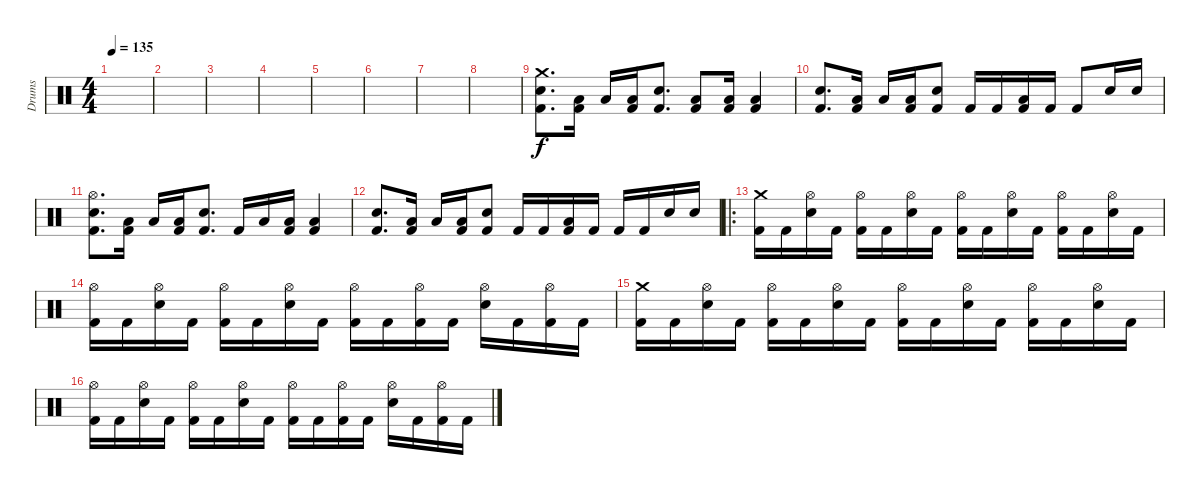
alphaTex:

\track ("Drums" "Drums") {instrument percussion}
\staff {score}
\articulation defaults
\ts (4 4)
\tempo 135
\clef neutral
\ks c
|
|
|
|
|
|
|
|
("Crash medium (hit)" "Electric Snare (hit)" "Kick (hit) 2").8{d} ("Low Floor Tom (hit)" "Kick (hit) 2").16 "Low Floor Tom (hit)".16 ("Low Floor Tom (hit)" "Kick (hit) 2").16 ("Electric Snare (hit)" "Kick (hit) 2").8{d} ("Low Floor Tom (hit)" "Kick (hit) 2").8 ("Low Floor Tom (hit)" "Kick (hit) 2").16 ("Low Floor Tom (hit)" "Kick (hit) 2").4 |
("Electric Snare (hit)" "Kick (hit) 2").8{d} ("Low Floor Tom (hit)" "Kick (hit) 2").16 "Low Floor Tom (hit)".16 ("Low Floor Tom (hit)" "Kick (hit) 2").16 ("Electric Snare (hit)" "Kick (hit) 2").8 "Kick (hit) 2".16 "Kick (hit) 2".16 ("Low Floor Tom (hit)" "Kick (hit) 2").16 "Kick (hit) 2".16 "Kick (hit) 2".8 "Electric Snare (hit)".16 "Electric Snare (hit)".16 |
("Hi-Hat (open)" "Electric Snare (hit)" "Kick (hit) 2").8{d} ("Low Floor Tom (hit)" "Kick (hit) 2").16 "Low Floor Tom (hit)".16 ("Low Floor Tom (hit)" "Kick (hit) 2").16 ("Electric Snare (hit)" "Kick (hit) 2").8{d} "Kick (hit) 2".16 "Low Floor Tom (hit)".16 ("Low Floor Tom (hit)" "Kick (hit) 2").16 ("Low Floor Tom (hit)" "Kick (hit) 2").4 |
("Electric Snare (hit)" "Kick (hit) 2").8{d} ("Low Floor Tom (hit)" "Kick (hit) 2").16 "Low Floor Tom (hit)".16 ("Low Floor Tom (hit)" "Kick (hit) 2").16 ("Electric Snare (hit)" "Kick (hit) 2").8 "Kick (hit) 2".16 "Kick (hit) 2".16 ("Low Floor Tom (hit)" "Kick (hit) 2").16 "Kick (hit) 2".16 "Kick (hit) 2".16 "Kick (hit) 2".16 "Electric Snare (hit)".16 "Electric Snare (hit)".16 |
\ro
("Crash medium (hit)" "Kick (hit) 2").16 "Kick (hit) 2".16 ("Hi-Hat (open)" "Electric Snare (hit)").16 "Kick (hit) 2".16 ("Hi-Hat (open)" "Kick (hit) 2").16 "Kick (hit) 2".16 ("Hi-Hat (open)" "Electric Snare (hit)").16 "Kick (hit) 2".16 ("Hi-Hat (open)" "Kick (hit) 2").16 "Kick (hit) 2".16 ("Hi-Hat (open)" "Electric Snare (hit)").16 "Kick (hit) 2".16 ("Hi-Hat (open)" "Kick (hit) 2").16 "Kick (hit) 2".16 ("Hi-Hat (open)" "Electric Snare (hit)").16 "Kick (hit) 2".16 |
("Hi-Hat (open)" "Kick (hit) 2").16 "Kick (hit) 2".16 ("Hi-Hat (open)" "Electric Snare (hit)").16 "Kick (hit) 2".16 ("Hi-Hat (open)" "Kick (hit) 2").16 "Kick (hit) 2".16 ("Hi-Hat (open)" "Electric Snare (hit)").16 "Kick (hit) 2".16 ("Hi-Hat (open)" "Kick (hit) 2").16 "Kick (hit) 2".16 ("Hi-Hat (open)" "Kick (hit) 2").16 "Kick (hit) 2".16 ("Hi-Hat (open)" "Electric Snare (hit)").16 "Kick (hit) 2".16 ("Hi-Hat (open)" "Kick (hit) 2").16 "Kick (hit) 2".16 |
("Crash medium (hit)" "Kick (hit) 2").16 "Kick (hit) 2".16 ("Hi-Hat (open)" "Electric Snare (hit)").16 "Kick (hit) 2".16 ("Hi-Hat (open)" "Kick (hit) 2").16 "Kick (hit) 2".16 ("Hi-Hat (open)" "Electric Snare (hit)").16 "Kick (hit) 2".16 ("Hi-Hat (open)" "Kick (hit) 2").16 "Kick (hit) 2".16 ("Hi-Hat (open)" "Electric Snare (hit)").16 "Kick (hit) 2".16 ("Hi-Hat (open)" "Kick (hit) 2").16 "Kick (hit) 2".16 ("Hi-Hat (open)" "Electric Snare (hit)").16 "Kick (hit) 2".16 |
("Hi-Hat (open)" "Kick (hit) 2").16 "Kick (hit) 2".16 ("Hi-Hat (open)" "Electric Snare (hit)").16 "Kick (hit) 2".16 ("Hi-Hat (open)" "Kick (hit) 2").16 "Kick (hit) 2".16 ("Hi-Hat (open)" "Electric Snare (hit)").16 "Kick (hit) 2".16 ("Hi-Hat (open)" "Kick (hit) 2").16 "Kick (hit) 2".16 ("Hi-Hat (open)" "Kick (hit) 2").16 "Kick (hit) 2".16 ("Hi-Hat (open)" "Electric Snare (hit)").16 "Kick (hit) 2".16 ("Hi-Hat (open)" "Kick (hit) 2").16 "Kick (hit) 2".16
